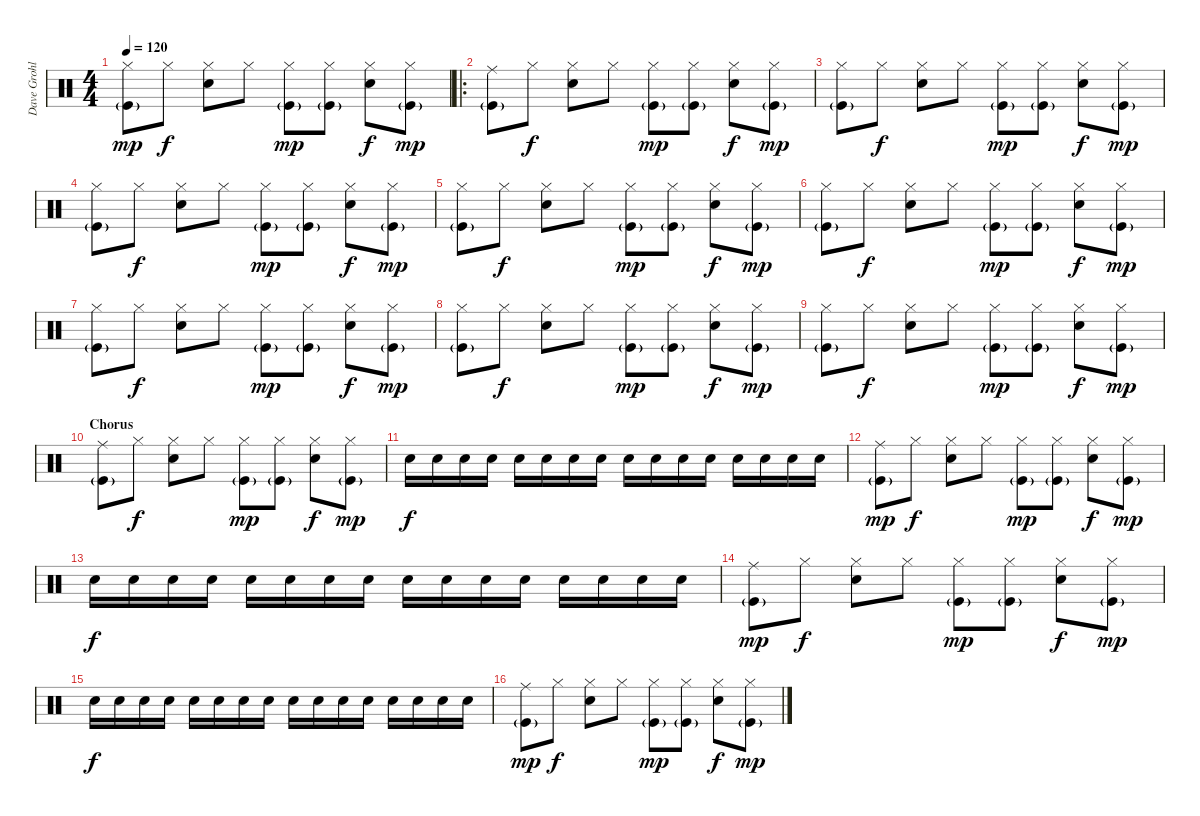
\track ("Dave Grohl" "Dave Grohl") {instrument percussion}
\staff {score}
\articulation defaults
\ts (4 4)
\tempo 120
\clef neutral
\ks c
("Hi-Hat (closed)" "Kick (hit)"{g}).8{dy mp} "Hi-Hat (closed)".8{dy f} ("Hi-Hat (closed)" "Electric Snare (hit)").8 "Hi-Hat (closed)".8 ("Hi-Hat (closed)" "Kick (hit)"{g}).8{dy mp} ("Hi-Hat (closed)" "Kick (hit)"{g}).8 ("Hi-Hat (closed)" "Electric Snare (hit)").8{dy f} ("Hi-Hat (closed)" "Kick (hit)"{g}).8{dy mp} |
\ro
("Ride (middle)" "Kick (hit)"{g}).8 "Hi-Hat (closed)".8{dy f} ("Hi-Hat (closed)" "Electric Snare (hit)").8 "Hi-Hat (closed)".8 ("Hi-Hat (closed)" "Kick (hit)"{g}).8{dy mp} ("Hi-Hat (closed)" "Kick (hit)"{g}).8 ("Hi-Hat (closed)" "Electric Snare (hit)").8{dy f} ("Hi-Hat (closed)" "Kick (hit)"{g}).8{dy mp} |
("Hi-Hat (closed)" "Kick (hit)"{g}).8 "Hi-Hat (closed)".8{dy f} ("Hi-Hat (closed)" "Electric Snare (hit)").8 "Hi-Hat (closed)".8 ("Hi-Hat (closed)" "Kick (hit)"{g}).8{dy mp} ("Hi-Hat (closed)" "Kick (hit)"{g}).8 ("Hi-Hat (closed)" "Electric Snare (hit)").8{dy f} ("Hi-Hat (closed)" "Kick (hit)"{g}).8{dy mp} |
("Hi-Hat (closed)" "Kick (hit)"{g}).8 "Hi-Hat (closed)".8{dy f} ("Hi-Hat (closed)" "Electric Snare (hit)").8 "Hi-Hat (closed)".8 ("Hi-Hat (closed)" "Kick (hit)"{g}).8{dy mp} ("Hi-Hat (closed)" "Kick (hit)"{g}).8 ("Hi-Hat (closed)" "Electric Snare (hit)").8{dy f} ("Hi-Hat (closed)" "Kick (hit)"{g}).8{dy mp} |
("Hi-Hat (closed)" "Kick (hit)"{g}).8 "Hi-Hat (closed)".8{dy f} ("Hi-Hat (closed)" "Electric Snare (hit)").8 "Hi-Hat (closed)".8 ("Hi-Hat (closed)" "Kick (hit)"{g}).8{dy mp} ("Hi-Hat (closed)" "Kick (hit)"{g}).8 ("Hi-Hat (closed)" "Electric Snare (hit)").8{dy f} ("Hi-Hat (closed)" "Kick (hit)"{g}).8{dy mp} |
("Hi-Hat (closed)" "Kick (hit)"{g}).8 "Hi-Hat (closed)".8{dy f} ("Hi-Hat (closed)" "Electric Snare (hit)").8 "Hi-Hat (closed)".8 ("Hi-Hat (closed)" "Kick (hit)"{g}).8{dy mp} ("Hi-Hat (closed)" "Kick (hit)"{g}).8 ("Hi-Hat (closed)" "Electric Snare (hit)").8{dy f} ("Hi-Hat (closed)" "Kick (hit)"{g}).8{dy mp} |
("Hi-Hat (closed)" "Kick (hit)"{g}).8 "Hi-Hat (closed)".8{dy f} ("Hi-Hat (closed)" "Electric Snare (hit)").8 "Hi-Hat (closed)".8 ("Hi-Hat (closed)" "Kick (hit)"{g}).8{dy mp} ("Hi-Hat (closed)" "Kick (hit)"{g}).8 ("Hi-Hat (closed)" "Electric Snare (hit)").8{dy f} ("Hi-Hat (closed)" "Kick (hit)"{g}).8{dy mp} |
("Hi-Hat (closed)" "Kick (hit)"{g}).8 "Hi-Hat (closed)".8{dy f} ("Hi-Hat (closed)" "Electric Snare (hit)").8 "Hi-Hat (closed)".8 ("Hi-Hat (closed)" "Kick (hit)"{g}).8{dy mp} ("Hi-Hat (closed)" "Kick (hit)"{g}).8 ("Hi-Hat (closed)" "Electric Snare (hit)").8{dy f} ("Hi-Hat (closed)" "Kick (hit)"{g}).8{dy mp} |
("Hi-Hat (closed)" "Kick (hit)"{g}).8 "Hi-Hat (closed)".8{dy f} ("Hi-Hat (closed)" "Electric Snare (hit)").8 "Hi-Hat (closed)".8 ("Hi-Hat (closed)" "Kick (hit)"{g}).8{dy mp} ("Hi-Hat (closed)" "Kick (hit)"{g}).8 ("Hi-Hat (closed)" "Electric Snare (hit)").8{dy f} ("Hi-Hat (closed)" "Kick (hit)"{g}).8{dy mp} |
\section ("" "Chorus")
("Ride (middle)" "Kick (hit)"{g}).8 "Hi-Hat (closed)".8{dy f} ("Hi-Hat (closed)" "Electric Snare (hit)").8 "Hi-Hat (closed)".8 ("Hi-Hat (closed)" "Kick (hit)"{g}).8{dy mp} ("Hi-Hat (closed)" "Kick (hit)"{g}).8 ("Hi-Hat (closed)" "Electric Snare (hit)").8{dy f} ("Hi-Hat (closed)" "Kick (hit)"{g}).8{dy mp} |
"Electric Snare (hit)".16{dy f} "Electric Snare (hit)".16 "Electric Snare (hit)".16 "Electric Snare (hit)".16 "Electric Snare (hit)".16 "Electric Snare (hit)".16 "Electric Snare (hit)".16 "Electric Snare (hit)".16 "Electric Snare (hit)".16 "Electric Snare (hit)".16 "Electric Snare (hit)".16 "Electric Snare (hit)".16 "Electric Snare (hit)".16 "Electric Snare (hit)".16 "Electric Snare (hit)".16 "Electric Snare (hit)".16 |
("Ride (middle)" "Kick (hit)"{g}).8{dy mp} "Hi-Hat (closed)".8{dy f} ("Hi-Hat (closed)" "Electric Snare (hit)").8 "Hi-Hat (closed)".8 ("Hi-Hat (closed)" "Kick (hit)"{g}).8{dy mp} ("Hi-Hat (closed)" "Kick (hit)"{g}).8 ("Hi-Hat (closed)" "Electric Snare (hit)").8{dy f} ("Hi-Hat (closed)" "Kick (hit)"{g}).8{dy mp} |
"Electric Snare (hit)".16{dy f} "Electric Snare (hit)".16 "Electric Snare (hit)".16 "Electric Snare (hit)".16 "Electric Snare (hit)".16 "Electric Snare (hit)".16 "Electric Snare (hit)".16 "Electric Snare (hit)".16 "Electric Snare (hit)".16 "Electric Snare (hit)".16 "Electric Snare (hit)".16 "Electric Snare (hit)".16 "Electric Snare (hit)".16 "Electric Snare (hit)".16 "Electric Snare (hit)".16 "Electric Snare (hit)".16 |
("Ride (middle)" "Kick (hit)"{g}).8{dy mp} "Hi-Hat (closed)".8{dy f} ("Hi-Hat (closed)" "Electric Snare (hit)").8 "Hi-Hat (closed)".8 ("Hi-Hat (closed)" "Kick (hit)"{g}).8{dy mp} ("Hi-Hat (closed)" "Kick (hit)"{g}).8 ("Hi-Hat (closed)" "Electric Snare (hit)").8{dy f} ("Hi-Hat (closed)" "Kick (hit)"{g}).8{dy mp} |
"Electric Snare (hit)".16{dy f} "Electric Snare (hit)".16 "Electric Snare (hit)".16 "Electric Snare (hit)".16 "Electric Snare (hit)".16 "Electric Snare (hit)".16 "Electric Snare (hit)".16 "Electric Snare (hit)".16 "Electric Snare (hit)".16 "Electric Snare (hit)".16 "Electric Snare (hit)".16 "Electric Snare (hit)".16 "Electric Snare (hit)".16 "Electric Snare (hit)".16 "Electric Snare (hit)".16 "Electric Snare (hit)".16 |
("Ride (middle)" "Kick (hit)"{g}).8{dy mp} "Hi-Hat (closed)".8{dy f} ("Hi-Hat (closed)" "Electric Snare (hit)").8 "Hi-Hat (closed)".8 ("Hi-Hat (closed)" "Kick (hit)"{g}).8{dy mp} ("Hi-Hat (closed)" "Kick (hit)"{g}).8 ("Hi-Hat (closed)" "Electric Snare (hit)").8{dy f} ("Hi-Hat (closed)" "Kick (hit)"{g}).8{dy mp}
